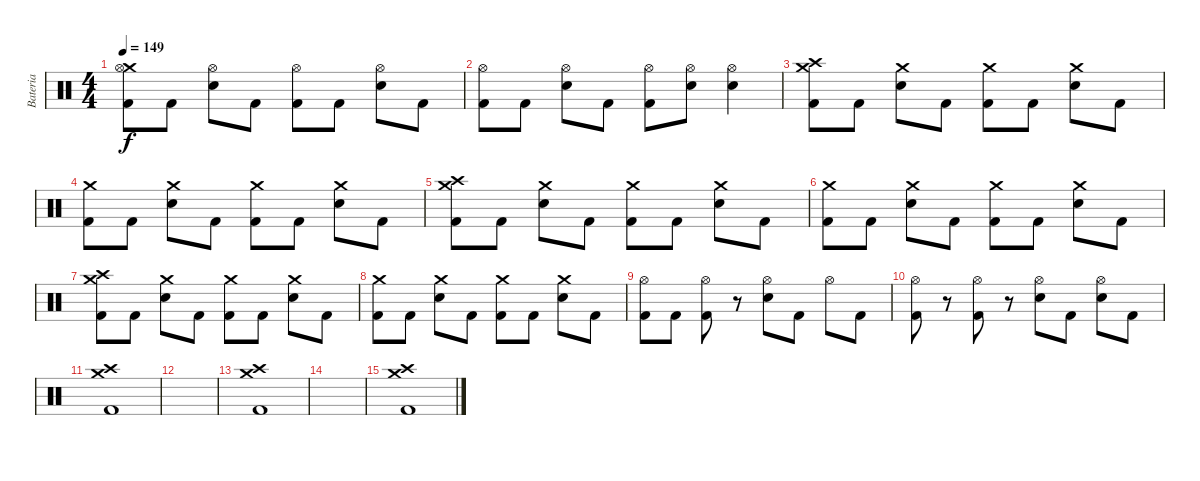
\track ("Bateria" "Bateria") {instrument percussion}
\staff {score}
\articulation defaults
\ts (4 4)
\tempo 149
\clef neutral
\ks c
("Crash medium (hit)" "Hi-Hat (open)" "Kick (hit) 2").8{dy f} "Kick (hit) 2".8 ("Hi-Hat (open)" "Electric Snare (hit)").8 "Kick (hit) 2".8 ("Hi-Hat (open)" "Kick (hit) 2").8 "Kick (hit) 2".8 ("Hi-Hat (open)" "Electric Snare (hit)").8 "Kick (hit) 2".8 |
("Hi-Hat (open)" "Kick (hit) 2").8 "Kick (hit) 2".8 ("Hi-Hat (open)" "Electric Snare (hit)").8 "Kick (hit) 2".8 ("Hi-Hat (open)" "Kick (hit) 2").8 ("Hi-Hat (open)" "Electric Snare (hit)").8 ("Hi-Hat (open)" "Electric Snare (hit)").4 |
("Crash high (hit)" "Crash medium (hit)" "Kick (hit) 2").8 "Kick (hit) 2".8 ("Crash medium (hit)" "Electric Snare (hit)").8 "Kick (hit) 2".8 ("Crash medium (hit)" "Kick (hit) 2").8 "Kick (hit) 2".8 ("Crash medium (hit)" "Electric Snare (hit)").8 "Kick (hit) 2".8 |
("Crash medium (hit)" "Kick (hit) 2").8 "Kick (hit) 2".8 ("Crash medium (hit)" "Electric Snare (hit)").8 "Kick (hit) 2".8 ("Crash medium (hit)" "Kick (hit) 2").8 "Kick (hit) 2".8 ("Crash medium (hit)" "Electric Snare (hit)").8 "Kick (hit) 2".8 |
("Crash high (hit)" "Crash medium (hit)" "Kick (hit) 2").8 "Kick (hit) 2".8 ("Crash medium (hit)" "Electric Snare (hit)").8 "Kick (hit) 2".8 ("Crash medium (hit)" "Kick (hit) 2").8 "Kick (hit) 2".8 ("Crash medium (hit)" "Electric Snare (hit)").8 "Kick (hit) 2".8 |
("Crash medium (hit)" "Kick (hit) 2").8 "Kick (hit) 2".8 ("Crash medium (hit)" "Electric Snare (hit)").8 "Kick (hit) 2".8 ("Crash medium (hit)" "Kick (hit) 2").8 "Kick (hit) 2".8 ("Crash medium (hit)" "Electric Snare (hit)").8 "Kick (hit) 2".8 |
("Crash high (hit)" "Crash medium (hit)" "Kick (hit) 2").8 "Kick (hit) 2".8 ("Crash medium (hit)" "Electric Snare (hit)").8 "Kick (hit) 2".8 ("Crash medium (hit)" "Kick (hit) 2").8 "Kick (hit) 2".8 ("Crash medium (hit)" "Electric Snare (hit)").8 "Kick (hit) 2".8 |
("Crash medium (hit)" "Kick (hit) 2").8 "Kick (hit) 2".8 ("Crash medium (hit)" "Electric Snare (hit)").8 "Kick (hit) 2".8 ("Crash medium (hit)" "Kick (hit) 2").8 "Kick (hit) 2".8 ("Crash medium (hit)" "Electric Snare (hit)").8 "Kick (hit) 2".8 |
("Hi-Hat (open)" "Kick (hit) 2").8 "Kick (hit) 2".8 ("Hi-Hat (open)" "Kick (hit) 2").8 r.8 ("Hi-Hat (open)" "Electric Snare (hit)").8 "Kick (hit) 2".8 "Hi-Hat (open)".8 "Kick (hit) 2".8 |
("Hi-Hat (open)" "Kick (hit) 2").8 r.8 ("Hi-Hat (open)" "Kick (hit) 2").8 r.8 ("Hi-Hat (open)" "Electric Snare (hit)").8 "Kick (hit) 2".8 ("Hi-Hat (open)" "Electric Snare (hit)").8 "Kick (hit) 2".8 |
("Crash high (hit)" "Crash medium (hit)" "Kick (hit) 2").1 |
|
("Crash high (hit)" "Crash medium (hit)" "Kick (hit) 2").1 |
|
("Crash high (hit)" "Crash medium (hit)" "Kick (hit) 2").1
